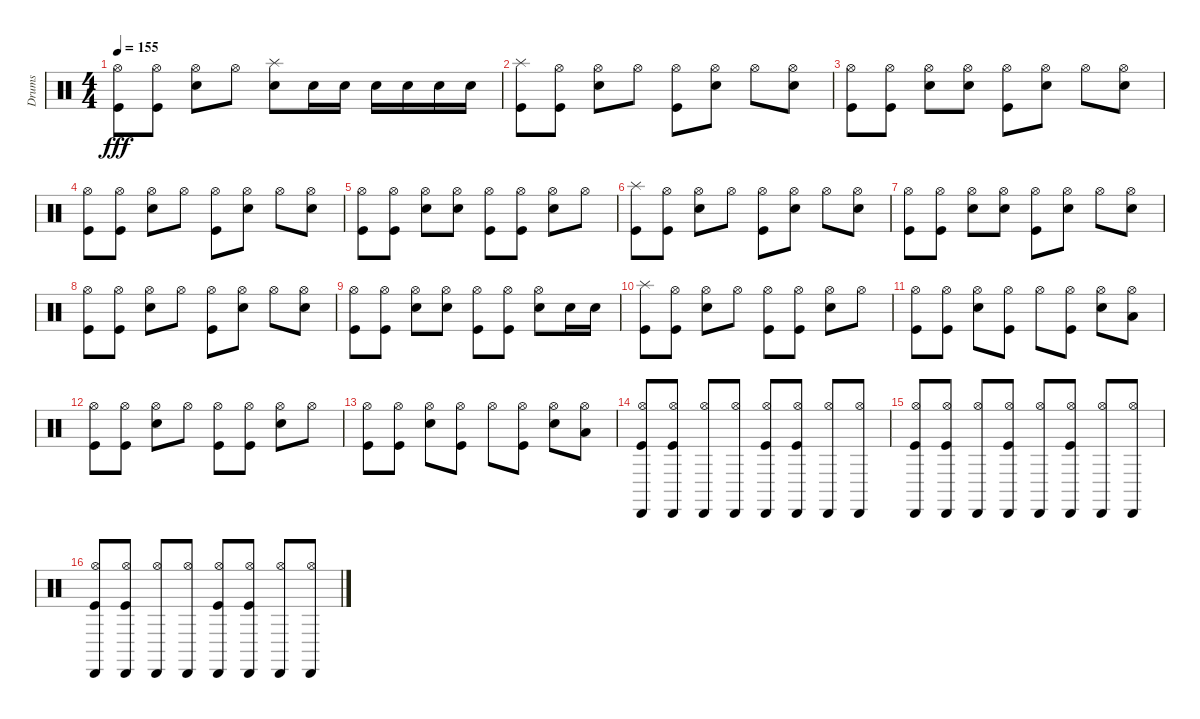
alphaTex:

\track ("Drums" "Drums") {instrument percussion}
\staff {score}
\articulation defaults
\ts (4 4)
\tempo 155
\clef neutral
\ks c
("Hi-Hat (open)" "Kick (hit)").8{dy fff} ("Hi-Hat (open)" "Kick (hit)").8 ("Hi-Hat (open)" "Snare (hit) 2").8 "Hi-Hat (open)".8 ("Splash (hit)" "Snare (hit) 2").8 "Snare (hit) 2".16 "Snare (hit) 2".16 "Snare (hit) 2".16 "Snare (hit) 2".16 "Snare (hit) 2".16 "Snare (hit) 2".16 |
("Splash (hit)" "Kick (hit)").8 ("Hi-Hat (open)" "Kick (hit)").8 ("Hi-Hat (open)" "Snare (hit) 2").8 "Hi-Hat (open)".8 ("Hi-Hat (open)" "Kick (hit)").8 ("Hi-Hat (open)" "Snare (hit) 2").8 "Hi-Hat (open)".8 ("Hi-Hat (open)" "Snare (hit) 2").8 |
("Hi-Hat (open)" "Kick (hit)").8 ("Hi-Hat (open)" "Kick (hit)").8 ("Hi-Hat (open)" "Snare (hit) 2").8 ("Hi-Hat (open)" "Snare (hit) 2").8 ("Hi-Hat (open)" "Kick (hit)").8 ("Hi-Hat (open)" "Snare (hit) 2").8 "Hi-Hat (open)".8 ("Hi-Hat (open)" "Snare (hit) 2").8 |
("Hi-Hat (open)" "Kick (hit)").8 ("Hi-Hat (open)" "Kick (hit)").8 ("Hi-Hat (open)" "Snare (hit) 2").8 "Hi-Hat (open)".8 ("Hi-Hat (open)" "Kick (hit)").8 ("Hi-Hat (open)" "Snare (hit) 2").8 "Hi-Hat (open)".8 ("Hi-Hat (open)" "Snare (hit) 2").8 |
("Hi-Hat (open)" "Kick (hit)").8 ("Hi-Hat (open)" "Kick (hit)").8 ("Hi-Hat (open)" "Snare (hit) 2").8 ("Hi-Hat (open)" "Snare (hit) 2").8 ("Hi-Hat (open)" "Kick (hit)").8 ("Hi-Hat (open)" "Kick (hit)").8 ("Hi-Hat (open)" "Snare (hit) 2").8 "Hi-Hat (open)".8 |
("Splash (hit)" "Kick (hit)").8 ("Hi-Hat (open)" "Kick (hit)").8 ("Hi-Hat (open)" "Snare (hit) 2").8 "Hi-Hat (open)".8 ("Hi-Hat (open)" "Kick (hit)").8 ("Hi-Hat (open)" "Snare (hit) 2").8 "Hi-Hat (open)".8 ("Hi-Hat (open)" "Snare (hit) 2").8 |
("Hi-Hat (open)" "Kick (hit)").8 ("Hi-Hat (open)" "Kick (hit)").8 ("Hi-Hat (open)" "Snare (hit) 2").8 ("Hi-Hat (open)" "Snare (hit) 2").8 ("Hi-Hat (open)" "Kick (hit)").8 ("Hi-Hat (open)" "Snare (hit) 2").8 "Hi-Hat (open)".8 ("Hi-Hat (open)" "Snare (hit) 2").8 |
("Hi-Hat (open)" "Kick (hit)").8 ("Hi-Hat (open)" "Kick (hit)").8 ("Hi-Hat (open)" "Snare (hit) 2").8 "Hi-Hat (open)".8 ("Hi-Hat (open)" "Kick (hit)").8 ("Hi-Hat (open)" "Snare (hit) 2").8 "Hi-Hat (open)".8 ("Hi-Hat (open)" "Snare (hit) 2").8 |
("Hi-Hat (open)" "Kick (hit)").8 ("Hi-Hat (open)" "Kick (hit)").8 ("Hi-Hat (open)" "Snare (hit) 2").8 ("Hi-Hat (open)" "Snare (hit) 2").8 ("Hi-Hat (open)" "Kick (hit)").8 ("Hi-Hat (open)" "Kick (hit)").8 ("Hi-Hat (open)" "Snare (hit) 2").8 "Snare (hit) 2".16 "Snare (hit) 2".16 |
("Splash (hit)" "Kick (hit)").8 ("Hi-Hat (open)" "Kick (hit)").8 ("Hi-Hat (open)" "Snare (hit) 2").8 "Hi-Hat (open)".8 ("Hi-Hat (open)" "Kick (hit)").8 ("Hi-Hat (open)" "Kick (hit)").8 ("Hi-Hat (open)" "Snare (hit) 2").8 "Hi-Hat (open)".8 |
("Hi-Hat (open)" "Kick (hit)").8 ("Hi-Hat (open)" "Kick (hit)").8 ("Hi-Hat (open)" "Snare (hit) 2").8 ("Hi-Hat (open)" "Kick (hit)").8 "Hi-Hat (open)".8 ("Hi-Hat (open)" "Kick (hit)").8 ("Hi-Hat (open)" "Snare (hit) 2").8 ("Hi-Hat (open)" "Low Tom (hit)").8 |
("Hi-Hat (open)" "Kick (hit)").8 ("Hi-Hat (open)" "Kick (hit)").8 ("Hi-Hat (open)" "Snare (hit) 2").8 "Hi-Hat (open)".8 ("Hi-Hat (open)" "Kick (hit)").8 ("Hi-Hat (open)" "Kick (hit)").8 ("Hi-Hat (open)" "Snare (hit) 2").8 "Hi-Hat (open)".8 |
("Hi-Hat (open)" "Kick (hit)").8 ("Hi-Hat (open)" "Kick (hit)").8 ("Hi-Hat (open)" "Snare (hit) 2").8 ("Hi-Hat (open)" "Kick (hit)").8 "Hi-Hat (open)".8 ("Hi-Hat (open)" "Kick (hit)").8 ("Hi-Hat (open)" "Snare (hit) 2").8 ("Hi-Hat (open)" "Low Tom (hit)").8 |
("Hi-Hat (open)" "Cabasa (hit)" "Kick (hit)").8 ("Hi-Hat (open)" "Cabasa (hit)" "Kick (hit)").8 ("Hi-Hat (open)" "Cabasa (hit)").8 ("Hi-Hat (open)" "Cabasa (hit)").8 ("Hi-Hat (open)" "Cabasa (hit)" "Kick (hit)").8 ("Hi-Hat (open)" "Cabasa (hit)" "Kick (hit)").8 ("Hi-Hat (open)" "Cabasa (hit)").8 ("Hi-Hat (open)" "Cabasa (hit)").8 |
("Hi-Hat (open)" "Cabasa (hit)" "Kick (hit)").8 ("Hi-Hat (open)" "Cabasa (hit)" "Kick (hit)").8 ("Hi-Hat (open)" "Cabasa (hit)").8 ("Hi-Hat (open)" "Cabasa (hit)" "Kick (hit)").8 ("Hi-Hat (open)" "Cabasa (hit)").8 ("Hi-Hat (open)" "Cabasa (hit)" "Kick (hit)").8 ("Hi-Hat (open)" "Cabasa (hit)").8 ("Hi-Hat (open)" "Cabasa (hit)").8 |
("Hi-Hat (open)" "Cabasa (hit)" "Kick (hit)").8 ("Hi-Hat (open)" "Cabasa (hit)" "Kick (hit)").8 ("Hi-Hat (open)" "Cabasa (hit)").8 ("Hi-Hat (open)" "Cabasa (hit)").8 ("Hi-Hat (open)" "Cabasa (hit)" "Kick (hit)").8 ("Hi-Hat (open)" "Cabasa (hit)" "Kick (hit)").8 ("Hi-Hat (open)" "Cabasa (hit)").8 ("Hi-Hat (open)" "Cabasa (hit)").8
